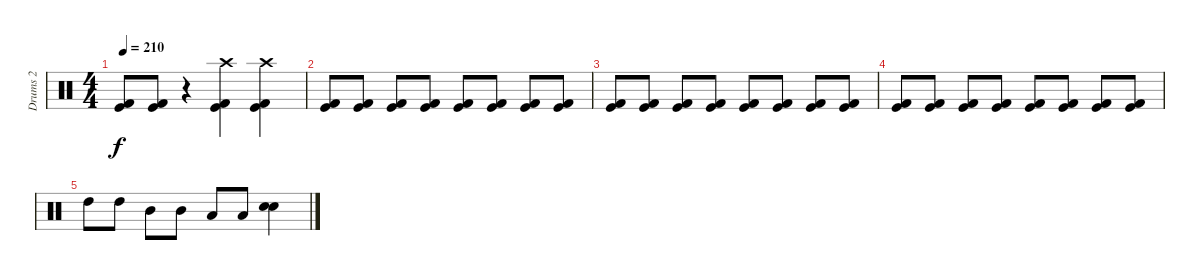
\track ("Drums 2" "Drums 2") {instrument percussion}
\staff {score}
\articulation defaults
\ts (4 4)
\tempo 210
\clef neutral
\ks c
("Kick (hit) 2" "Kick (hit)").8{dy f} ("Kick (hit) 2" "Kick (hit)").8 r.4 ("Kick (hit) 2" "Kick (hit)" "Crash high (hit)").4 ("Kick (hit) 2" "Kick (hit)" "Crash high (hit)").4 |
("Kick (hit) 2" "Kick (hit)").8 ("Kick (hit) 2" "Kick (hit)").8 ("Kick (hit) 2" "Kick (hit)").8 ("Kick (hit) 2" "Kick (hit)").8 ("Kick (hit) 2" "Kick (hit)").8 ("Kick (hit) 2" "Kick (hit)").8 ("Kick (hit) 2" "Kick (hit)").8 ("Kick (hit) 2" "Kick (hit)").8 |
("Kick (hit) 2" "Kick (hit)").8 ("Kick (hit) 2" "Kick (hit)").8 ("Kick (hit) 2" "Kick (hit)").8 ("Kick (hit) 2" "Kick (hit)").8 ("Kick (hit) 2" "Kick (hit)").8 ("Kick (hit) 2" "Kick (hit)").8 ("Kick (hit) 2" "Kick (hit)").8 ("Kick (hit) 2" "Kick (hit)").8 |
("Kick (hit) 2" "Kick (hit)").8 ("Kick (hit) 2" "Kick (hit)").8 ("Kick (hit) 2" "Kick (hit)").8 ("Kick (hit) 2" "Kick (hit)").8 ("Kick (hit) 2" "Kick (hit)").8 ("Kick (hit) 2" "Kick (hit)").8 ("Kick (hit) 2" "Kick (hit)").8 ("Kick (hit) 2" "Kick (hit)").8 |
"High Tom (hit)".8 "High Tom (hit)".8 "Mid Tom (hit)".8 "Mid Tom (hit)".8 "Low Tom (hit)".8 "Low Tom (hit)".8 ("Electric Snare (hit)" "Snare (hit) 2").4
